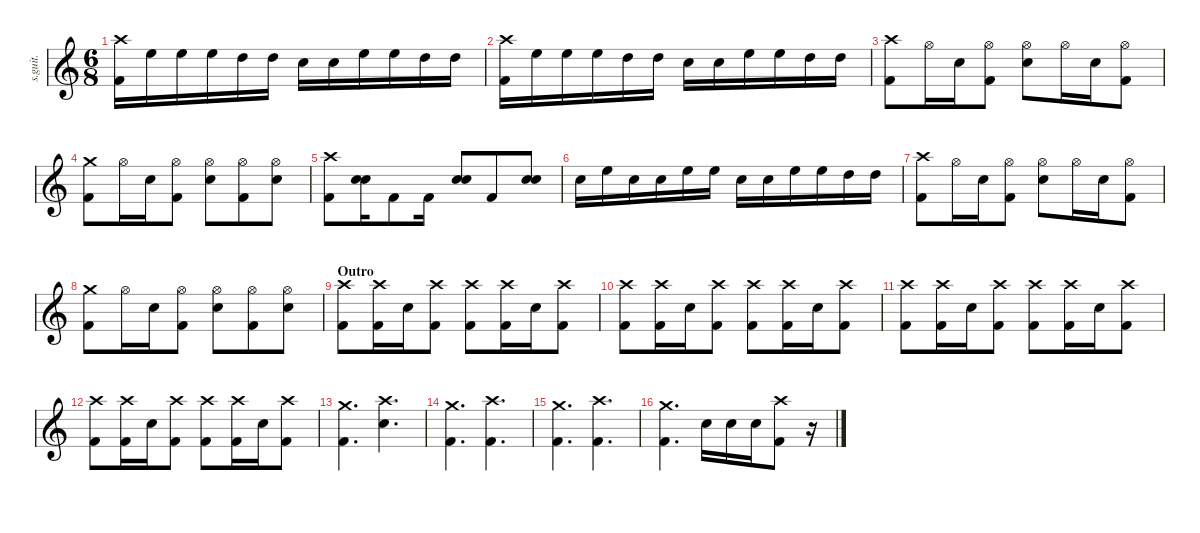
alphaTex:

\defaultSystemsLayout 4
\hideDynamics
\bracketExtendMode nobrackets
\track ("John Dolmayan" "s.guit.") {instrument percussion}
\staff {score}
\articulation defaults
\ts (6 8)
\tempo (120 hide)
\clef g2
\ks c
("Crash high (hit)" "Kick (hit) 2").16{lyrics (0 "") lyrics (1 "") lyrics (2 "") lyrics (3 "") lyrics (4 "") dy f} "High Floor Tom (hit)".16{lyrics (0 "") lyrics (1 "") lyrics (2 "") lyrics (3 "") lyrics (4 "")} "High Floor Tom (hit)".16{lyrics (0 "") lyrics (1 "") lyrics (2 "") lyrics (3 "") lyrics (4 "")} "High Floor Tom (hit)".16{lyrics (0 "") lyrics (1 "") lyrics (2 "") lyrics (3 "") lyrics (4 "")} "High Tom (hit)".16{lyrics (0 "") lyrics (1 "") lyrics (2 "") lyrics (3 "") lyrics (4 "")} "High Tom (hit)".16{lyrics (0 "") lyrics (1 "") lyrics (2 "") lyrics (3 "") lyrics (4 "")} "Snare (hit) 2".16{lyrics (0 "") lyrics (1 "") lyrics (2 "") lyrics (3 "") lyrics (4 "")} "Snare (hit) 2".16{lyrics (0 "") lyrics (1 "") lyrics (2 "") lyrics (3 "") lyrics (4 "")} "High Floor Tom (hit)".16{lyrics (0 "") lyrics (1 "") lyrics (2 "") lyrics (3 "") lyrics (4 "")} "High Floor Tom (hit)".16{lyrics (0 "") lyrics (1 "") lyrics (2 "") lyrics (3 "") lyrics (4 "")} "High Tom (hit)".16{lyrics (0 "") lyrics (1 "") lyrics (2 "") lyrics (3 "") lyrics (4 "")} "High Tom (hit)".16{lyrics (0 "") lyrics (1 "") lyrics (2 "") lyrics (3 "") lyrics (4 "")} |
("Crash high (hit)" "Kick (hit) 2").16{lyrics (0 "") lyrics (1 "") lyrics (2 "") lyrics (3 "") lyrics (4 "")} "High Floor Tom (hit)".16{lyrics (0 "") lyrics (1 "") lyrics (2 "") lyrics (3 "") lyrics (4 "")} "High Floor Tom (hit)".16{lyrics (0 "") lyrics (1 "") lyrics (2 "") lyrics (3 "") lyrics (4 "")} "High Floor Tom (hit)".16{lyrics (0 "") lyrics (1 "") lyrics (2 "") lyrics (3 "") lyrics (4 "")} "High Tom (hit)".16{lyrics (0 "") lyrics (1 "") lyrics (2 "") lyrics (3 "") lyrics (4 "")} "High Tom (hit)".16{lyrics (0 "") lyrics (1 "") lyrics (2 "") lyrics (3 "") lyrics (4 "")} "Snare (hit) 2".16{lyrics (0 "") lyrics (1 "") lyrics (2 "") lyrics (3 "") lyrics (4 "")} "Snare (hit) 2".16{lyrics (0 "") lyrics (1 "") lyrics (2 "") lyrics (3 "") lyrics (4 "")} "High Floor Tom (hit)".16{lyrics (0 "") lyrics (1 "") lyrics (2 "") lyrics (3 "") lyrics (4 "")} "High Floor Tom (hit)".16{lyrics (0 "") lyrics (1 "") lyrics (2 "") lyrics (3 "") lyrics (4 "")} "High Tom (hit)".16{lyrics (0 "") lyrics (1 "") lyrics (2 "") lyrics (3 "") lyrics (4 "")} "High Tom (hit)".16{lyrics (0 "") lyrics (1 "") lyrics (2 "") lyrics (3 "") lyrics (4 "")} |
("Crash high (hit)" "Kick (hit) 2").8{lyrics (0 "") lyrics (1 "") lyrics (2 "") lyrics (3 "") lyrics (4 "")} "Hi-Hat (open)".16{lyrics (0 "") lyrics (1 "") lyrics (2 "") lyrics (3 "") lyrics (4 "")} "Snare (hit) 2".16{lyrics (0 "") lyrics (1 "") lyrics (2 "") lyrics (3 "") lyrics (4 "")} ("Hi-Hat (open)" "Kick (hit) 2").8{lyrics (0 "") lyrics (1 "") lyrics (2 "") lyrics (3 "") lyrics (4 "")} ("Hi-Hat (open)" "Snare (hit) 2").8{lyrics (0 "") lyrics (1 "") lyrics (2 "") lyrics (3 "") lyrics (4 "")} "Hi-Hat (open)".16{lyrics (0 "") lyrics (1 "") lyrics (2 "") lyrics (3 "") lyrics (4 "")} "Snare (hit) 2".16{lyrics (0 "") lyrics (1 "") lyrics (2 "") lyrics (3 "") lyrics (4 "")} ("Hi-Hat (open)" "Kick (hit) 2").8{lyrics (0 "") lyrics (1 "") lyrics (2 "") lyrics (3 "") lyrics (4 "")} |
("Crash medium (hit)" "Kick (hit) 2").8{lyrics (0 "") lyrics (1 "") lyrics (2 "") lyrics (3 "") lyrics (4 "")} "Hi-Hat (open)".16{lyrics (0 "") lyrics (1 "") lyrics (2 "") lyrics (3 "") lyrics (4 "")} "Snare (hit) 2".16{lyrics (0 "") lyrics (1 "") lyrics (2 "") lyrics (3 "") lyrics (4 "")} ("Hi-Hat (open)" "Kick (hit) 2").8{lyrics (0 "") lyrics (1 "") lyrics (2 "") lyrics (3 "") lyrics (4 "")} ("Hi-Hat (open)" "Snare (hit) 2").8{lyrics (0 "") lyrics (1 "") lyrics (2 "") lyrics (3 "") lyrics (4 "")} ("Hi-Hat (open)" "Kick (hit) 2").8{lyrics (0 "") lyrics (1 "") lyrics (2 "") lyrics (3 "") lyrics (4 "")} ("Hi-Hat (open)" "Snare (hit) 2").8{lyrics (0 "") lyrics (1 "") lyrics (2 "") lyrics (3 "") lyrics (4 "")} |
("Crash high (hit)" "Kick (hit) 2").8{lyrics (0 "") lyrics (1 "") lyrics (2 "") lyrics (3 "") lyrics (4 "")} ("Snare (hit) 2" "Snare (hit) 2").16{bu 30 lyrics (0 "") lyrics (1 "") lyrics (2 "") lyrics (3 "") lyrics (4 "")} "Kick (hit) 2".8{lyrics (0 "") lyrics (1 "") lyrics (2 "") lyrics (3 "") lyrics (4 "")} "Kick (hit) 2".16{lyrics (0 "") lyrics (1 "") lyrics (2 "") lyrics (3 "") lyrics (4 "")} ("Snare (hit) 2" "Snare (hit) 2").8{bu 30 lyrics (0 "") lyrics (1 "") lyrics (2 "") lyrics (3 "") lyrics (4 "")} "Kick (hit) 2".8{lyrics (0 "") lyrics (1 "") lyrics (2 "") lyrics (3 "") lyrics (4 "")} ("Snare (hit) 2" "Snare (hit) 2").8{bu 30 lyrics (0 "") lyrics (1 "") lyrics (2 "") lyrics (3 "") lyrics (4 "")} |
"Snare (hit) 2".16{lyrics (0 "") lyrics (1 "") lyrics (2 "") lyrics (3 "") lyrics (4 "")} "High Floor Tom (hit)".16{lyrics (0 "") lyrics (1 "") lyrics (2 "") lyrics (3 "") lyrics (4 "")} "Snare (hit) 2".16{lyrics (0 "") lyrics (1 "") lyrics (2 "") lyrics (3 "") lyrics (4 "")} "Snare (hit) 2".16{lyrics (0 "") lyrics (1 "") lyrics (2 "") lyrics (3 "") lyrics (4 "")} "High Floor Tom (hit)".16{lyrics (0 "") lyrics (1 "") lyrics (2 "") lyrics (3 "") lyrics (4 "")} "High Floor Tom (hit)".16{lyrics (0 "") lyrics (1 "") lyrics (2 "") lyrics (3 "") lyrics (4 "")} "Snare (hit) 2".16{lyrics (0 "") lyrics (1 "") lyrics (2 "") lyrics (3 "") lyrics (4 "")} "Snare (hit) 2".16{lyrics (0 "") lyrics (1 "") lyrics (2 "") lyrics (3 "") lyrics (4 "")} "High Floor Tom (hit)".16{lyrics (0 "") lyrics (1 "") lyrics (2 "") lyrics (3 "") lyrics (4 "")} "High Floor Tom (hit)".16{lyrics (0 "") lyrics (1 "") lyrics (2 "") lyrics (3 "") lyrics (4 "")} "High Tom (hit)".16{lyrics (0 "") lyrics (1 "") lyrics (2 "") lyrics (3 "") lyrics (4 "")} "High Tom (hit)".16{lyrics (0 "") lyrics (1 "") lyrics (2 "") lyrics (3 "") lyrics (4 "")} |
("Crash high (hit)" "Kick (hit) 2").8{lyrics (0 "") lyrics (1 "") lyrics (2 "") lyrics (3 "") lyrics (4 "")} "Hi-Hat (open)".16{lyrics (0 "") lyrics (1 "") lyrics (2 "") lyrics (3 "") lyrics (4 "")} "Snare (hit) 2".16{lyrics (0 "") lyrics (1 "") lyrics (2 "") lyrics (3 "") lyrics (4 "")} ("Hi-Hat (open)" "Kick (hit) 2").8{lyrics (0 "") lyrics (1 "") lyrics (2 "") lyrics (3 "") lyrics (4 "")} ("Hi-Hat (open)" "Snare (hit) 2").8{lyrics (0 "") lyrics (1 "") lyrics (2 "") lyrics (3 "") lyrics (4 "")} "Hi-Hat (open)".16{lyrics (0 "") lyrics (1 "") lyrics (2 "") lyrics (3 "") lyrics (4 "")} "Snare (hit) 2".16{lyrics (0 "") lyrics (1 "") lyrics (2 "") lyrics (3 "") lyrics (4 "")} ("Hi-Hat (open)" "Kick (hit) 2").8{lyrics (0 "") lyrics (1 "") lyrics (2 "") lyrics (3 "") lyrics (4 "")} |
("Crash medium (hit)" "Kick (hit) 2").8{lyrics (0 "") lyrics (1 "") lyrics (2 "") lyrics (3 "") lyrics (4 "")} "Hi-Hat (open)".16{lyrics (0 "") lyrics (1 "") lyrics (2 "") lyrics (3 "") lyrics (4 "")} "Snare (hit) 2".16{lyrics (0 "") lyrics (1 "") lyrics (2 "") lyrics (3 "") lyrics (4 "")} ("Hi-Hat (open)" "Kick (hit) 2").8{lyrics (0 "") lyrics (1 "") lyrics (2 "") lyrics (3 "") lyrics (4 "")} ("Hi-Hat (open)" "Snare (hit) 2").8{lyrics (0 "") lyrics (1 "") lyrics (2 "") lyrics (3 "") lyrics (4 "")} ("Hi-Hat (open)" "Kick (hit) 2").8{lyrics (0 "") lyrics (1 "") lyrics (2 "") lyrics (3 "") lyrics (4 "")} ("Hi-Hat (open)" "Snare (hit) 2").8{lyrics (0 "") lyrics (1 "") lyrics (2 "") lyrics (3 "") lyrics (4 "")} |
\section ("" "Outro")
\tempo (127 hide)
("Crash high (hit)" "Kick (hit) 2").8{lyrics (0 "") lyrics (1 "") lyrics (2 "") lyrics (3 "") lyrics (4 "")} ("Crash high (hit)" "Kick (hit) 2").16{lyrics (0 "") lyrics (1 "") lyrics (2 "") lyrics (3 "") lyrics (4 "")} "Snare (hit) 2".16{lyrics (0 "") lyrics (1 "") lyrics (2 "") lyrics (3 "") lyrics (4 "")} ("Crash high (hit)" "Kick (hit) 2").8{lyrics (0 "") lyrics (1 "") lyrics (2 "") lyrics (3 "") lyrics (4 "")} ("Crash high (hit)" "Kick (hit) 2").8{lyrics (0 "") lyrics (1 "") lyrics (2 "") lyrics (3 "") lyrics (4 "")} ("Crash high (hit)" "Kick (hit) 2").16{lyrics (0 "") lyrics (1 "") lyrics (2 "") lyrics (3 "") lyrics (4 "")} "Snare (hit) 2".16{lyrics (0 "") lyrics (1 "") lyrics (2 "") lyrics (3 "") lyrics (4 "")} ("Crash high (hit)" "Kick (hit) 2").8{lyrics (0 "") lyrics (1 "") lyrics (2 "") lyrics (3 "") lyrics (4 "")} |
("Crash high (hit)" "Kick (hit) 2").8{lyrics (0 "") lyrics (1 "") lyrics (2 "") lyrics (3 "") lyrics (4 "")} ("Crash high (hit)" "Kick (hit) 2").16{lyrics (0 "") lyrics (1 "") lyrics (2 "") lyrics (3 "") lyrics (4 "")} "Snare (hit) 2".16{lyrics (0 "") lyrics (1 "") lyrics (2 "") lyrics (3 "") lyrics (4 "")} ("Crash high (hit)" "Kick (hit) 2").8{lyrics (0 "") lyrics (1 "") lyrics (2 "") lyrics (3 "") lyrics (4 "")} ("Crash high (hit)" "Kick (hit) 2").8{lyrics (0 "") lyrics (1 "") lyrics (2 "") lyrics (3 "") lyrics (4 "")} ("Crash high (hit)" "Kick (hit) 2").16{lyrics (0 "") lyrics (1 "") lyrics (2 "") lyrics (3 "") lyrics (4 "")} "Snare (hit) 2".16{lyrics (0 "") lyrics (1 "") lyrics (2 "") lyrics (3 "") lyrics (4 "")} ("Crash high (hit)" "Kick (hit) 2").8{lyrics (0 "") lyrics (1 "") lyrics (2 "") lyrics (3 "") lyrics (4 "")} |
("Crash high (hit)" "Kick (hit) 2").8{lyrics (0 "") lyrics (1 "") lyrics (2 "") lyrics (3 "") lyrics (4 "")} ("Crash high (hit)" "Kick (hit) 2").16{lyrics (0 "") lyrics (1 "") lyrics (2 "") lyrics (3 "") lyrics (4 "")} "Snare (hit) 2".16{lyrics (0 "") lyrics (1 "") lyrics (2 "") lyrics (3 "") lyrics (4 "")} ("Crash high (hit)" "Kick (hit) 2").8{lyrics (0 "") lyrics (1 "") lyrics (2 "") lyrics (3 "") lyrics (4 "")} ("Crash high (hit)" "Kick (hit) 2").8{lyrics (0 "") lyrics (1 "") lyrics (2 "") lyrics (3 "") lyrics (4 "")} ("Crash high (hit)" "Kick (hit) 2").16{lyrics (0 "") lyrics (1 "") lyrics (2 "") lyrics (3 "") lyrics (4 "")} "Snare (hit) 2".16{lyrics (0 "") lyrics (1 "") lyrics (2 "") lyrics (3 "") lyrics (4 "")} ("Crash high (hit)" "Kick (hit) 2").8{lyrics (0 "") lyrics (1 "") lyrics (2 "") lyrics (3 "") lyrics (4 "")} |
("Crash high (hit)" "Kick (hit) 2").8{lyrics (0 "") lyrics (1 "") lyrics (2 "") lyrics (3 "") lyrics (4 "")} ("Crash high (hit)" "Kick (hit) 2").16{lyrics (0 "") lyrics (1 "") lyrics (2 "") lyrics (3 "") lyrics (4 "")} "Snare (hit) 2".16{lyrics (0 "") lyrics (1 "") lyrics (2 "") lyrics (3 "") lyrics (4 "")} ("Crash high (hit)" "Kick (hit) 2").8{lyrics (0 "") lyrics (1 "") lyrics (2 "") lyrics (3 "") lyrics (4 "")} ("Crash high (hit)" "Kick (hit) 2").8{lyrics (0 "") lyrics (1 "") lyrics (2 "") lyrics (3 "") lyrics (4 "")} ("Crash high (hit)" "Kick (hit) 2").16{lyrics (0 "") lyrics (1 "") lyrics (2 "") lyrics (3 "") lyrics (4 "")} "Snare (hit) 2".16{lyrics (0 "") lyrics (1 "") lyrics (2 "") lyrics (3 "") lyrics (4 "")} ("Crash high (hit)" "Kick (hit) 2").8{lyrics (0 "") lyrics (1 "") lyrics (2 "") lyrics (3 "") lyrics (4 "")} |
\tempo (123 hide)
("Crash medium (hit)" "Kick (hit) 2").4{d lyrics (0 "") lyrics (1 "") lyrics (2 "") lyrics (3 "") lyrics (4 "")} ("Crash high (hit)" "Snare (hit) 2").4{d lyrics (0 "") lyrics (1 "") lyrics (2 "") lyrics (3 "") lyrics (4 "")} |
("Crash medium (hit)" "Kick (hit) 2").4{d lyrics (0 "") lyrics (1 "") lyrics (2 "") lyrics (3 "") lyrics (4 "")} ("Crash high (hit)" "Kick (hit) 2").4{d lyrics (0 "") lyrics (1 "") lyrics (2 "") lyrics (3 "") lyrics (4 "")} |
("Crash medium (hit)" "Kick (hit) 2").4{d lyrics (0 "") lyrics (1 "") lyrics (2 "") lyrics (3 "") lyrics (4 "")} ("Crash high (hit)" "Kick (hit) 2").4{d lyrics (0 "") lyrics (1 "") lyrics (2 "") lyrics (3 "") lyrics (4 "")} |
("Crash medium (hit)" "Kick (hit) 2").4{d lyrics (0 "") lyrics (1 "") lyrics (2 "") lyrics (3 "") lyrics (4 "")} "Snare (hit) 2".16{lyrics (0 "") lyrics (1 "") lyrics (2 "") lyrics (3 "") lyrics (4 "")} "Snare (hit) 2".16{lyrics (0 "") lyrics (1 "") lyrics (2 "") lyrics (3 "") lyrics (4 "")} "Snare (hit) 2".16{lyrics (0 "") lyrics (1 "") lyrics (2 "") lyrics (3 "") lyrics (4 "")} ("Crash high (hit)" "Kick (hit) 2").8{lyrics (0 "") lyrics (1 "") lyrics (2 "") lyrics (3 "") lyrics (4 "")} r.16
